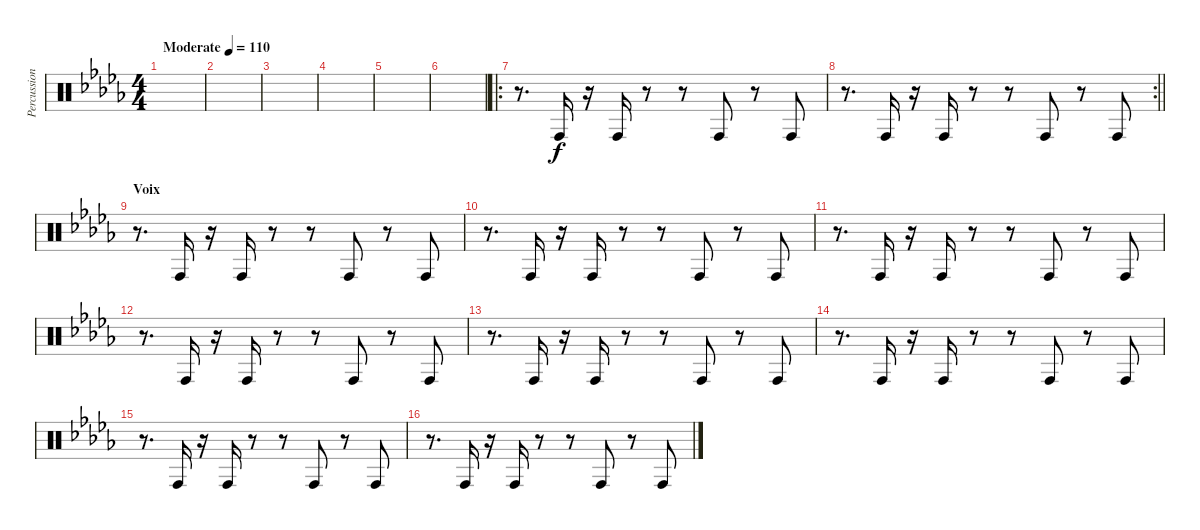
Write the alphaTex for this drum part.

\track ("Percussions" "Percussion") {instrument percussion}
\staff {score}
\articulation defaults
\ts (4 4)
\tempo (110 "Moderate")
\clef neutral
\ks bbminor
|
|
|
|
|
|
\ro
r.8{d} "Conga high (hit)".16 r.16 "Conga high (hit)".16 r.8 r.8 "Conga high (hit)".8 r.8 "Conga high (hit)".8 |
\rc 2
\barLineRight lightlight
r.8{d} "Conga high (hit)".16 r.16 "Conga high (hit)".16 r.8 r.8 "Conga high (hit)".8 r.8 "Conga high (hit)".8 |
\section ("" "Voix")
r.8{d} "Conga high (hit)".16 r.16 "Conga high (hit)".16 r.8 r.8 "Conga high (hit)".8 r.8 "Conga high (hit)".8 |
r.8{d} "Conga high (hit)".16 r.16 "Conga high (hit)".16 r.8 r.8 "Conga high (hit)".8 r.8 "Conga high (hit)".8 |
r.8{d} "Conga high (hit)".16 r.16 "Conga high (hit)".16 r.8 r.8 "Conga high (hit)".8 r.8 "Conga high (hit)".8 |
r.8{d} "Conga high (hit)".16 r.16 "Conga high (hit)".16 r.8 r.8 "Conga high (hit)".8 r.8 "Conga high (hit)".8 |
r.8{d} "Conga high (hit)".16 r.16 "Conga high (hit)".16 r.8 r.8 "Conga high (hit)".8 r.8 "Conga high (hit)".8 |
r.8{d} "Conga high (hit)".16 r.16 "Conga high (hit)".16 r.8 r.8 "Conga high (hit)".8 r.8 "Conga high (hit)".8 |
r.8{d} "Conga high (hit)".16 r.16 "Conga high (hit)".16 r.8 r.8 "Conga high (hit)".8 r.8 "Conga high (hit)".8 |
r.8{d} "Conga high (hit)".16 r.16 "Conga high (hit)".16 r.8 r.8 "Conga high (hit)".8 r.8 "Conga high (hit)".8
